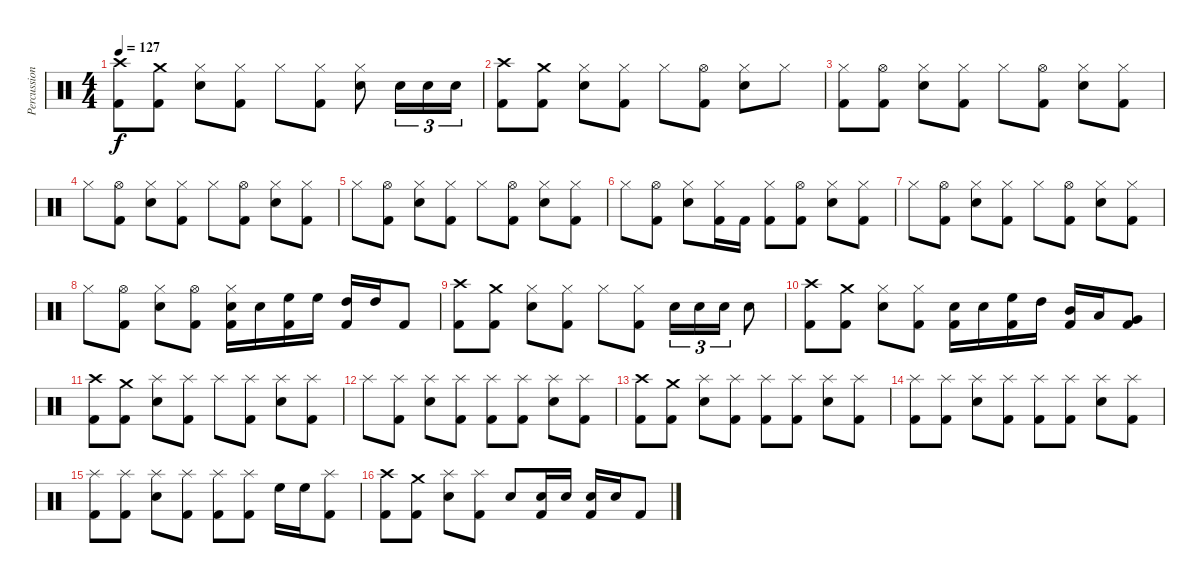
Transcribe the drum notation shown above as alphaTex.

\track ("Percussion" "Percussion") {instrument percussion}
\staff {score}
\articulation defaults
\ts (4 4)
\tempo 127
\clef neutral
\ks c
("Kick (hit) 2" "Crash high (hit)").8{dy f} ("Kick (hit) 2" "Crash medium (hit)").8 ("Snare (hit) 2" "Hi-Hat (closed)").8 ("Kick (hit) 2" "Hi-Hat (closed)").8 "Hi-Hat (closed)".8 ("Kick (hit) 2" "Hi-Hat (closed)").8 ("Snare (hit) 2" "Hi-Hat (closed)").8 "Snare (hit) 2".16{tu (3 2)} "Snare (hit) 2".16{tu (3 2)} "Snare (hit) 2".16{tu (3 2)} |
("Kick (hit) 2" "Crash high (hit)").8 ("Kick (hit) 2" "Crash medium (hit)").8 ("Snare (hit) 2" "Hi-Hat (closed)").8 ("Kick (hit) 2" "Hi-Hat (closed)").8 "Hi-Hat (closed)".8 ("Kick (hit) 2" "Hi-Hat (open)").8 ("Snare (hit) 2" "Hi-Hat (closed)").8 "Hi-Hat (closed)".8 |
("Kick (hit) 2" "Hi-Hat (closed)").8 ("Kick (hit) 2" "Hi-Hat (open)").8 ("Snare (hit) 2" "Hi-Hat (closed)").8 ("Kick (hit) 2" "Hi-Hat (closed)").8 "Hi-Hat (closed)".8 ("Kick (hit) 2" "Hi-Hat (open)").8 ("Snare (hit) 2" "Hi-Hat (closed)").8 ("Kick (hit) 2" "Hi-Hat (closed)").8 |
"Hi-Hat (closed)".8 ("Kick (hit) 2" "Hi-Hat (open)").8 ("Snare (hit) 2" "Hi-Hat (closed)").8 ("Kick (hit) 2" "Hi-Hat (closed)").8 "Hi-Hat (closed)".8 ("Kick (hit) 2" "Hi-Hat (open)").8 ("Snare (hit) 2" "Hi-Hat (closed)").8 ("Kick (hit) 2" "Hi-Hat (closed)").8 |
"Hi-Hat (closed)".8 ("Kick (hit) 2" "Hi-Hat (open)").8 ("Snare (hit) 2" "Hi-Hat (closed)").8 ("Kick (hit) 2" "Hi-Hat (closed)").8 "Hi-Hat (closed)".8 ("Kick (hit) 2" "Hi-Hat (open)").8 ("Snare (hit) 2" "Hi-Hat (closed)").8 ("Kick (hit) 2" "Hi-Hat (closed)").8 |
"Hi-Hat (closed)".8 ("Kick (hit) 2" "Hi-Hat (open)").8 ("Snare (hit) 2" "Hi-Hat (closed)").8 ("Kick (hit) 2" "Hi-Hat (closed)").16 "Kick (hit) 2".16 ("Kick (hit) 2" "Hi-Hat (closed)").8 ("Kick (hit) 2" "Hi-Hat (open)").8 ("Snare (hit) 2" "Hi-Hat (closed)").8 ("Kick (hit) 2" "Hi-Hat (closed)").8 |
"Hi-Hat (closed)".8 ("Kick (hit) 2" "Hi-Hat (open)").8 ("Snare (hit) 2" "Hi-Hat (closed)").8 ("Kick (hit) 2" "Hi-Hat (closed)").8 "Hi-Hat (closed)".8 ("Kick (hit) 2" "Hi-Hat (open)").8 ("Snare (hit) 2" "Hi-Hat (closed)").8 ("Kick (hit) 2" "Hi-Hat (closed)").8 |
"Hi-Hat (closed)".8 ("Kick (hit) 2" "Hi-Hat (open)").8 ("Snare (hit) 2" "Hi-Hat (closed)").8 ("Kick (hit) 2" "Hi-Hat (open)").8 ("Snare (hit) 2" "Kick (hit) 2" "Hi-Hat (closed)").16 "Snare (hit) 2".16 ("Kick (hit) 2" "High Floor Tom (hit)").16 "High Floor Tom (hit)".16 ("Kick (hit) 2" "High Tom (hit)").16 "High Tom (hit)".16 "Kick (hit) 2".8 |
("Kick (hit) 2" "Crash high (hit)").8 ("Kick (hit) 2" "Crash medium (hit)").8 ("Snare (hit) 2" "Hi-Hat (closed)").8 ("Kick (hit) 2" "Hi-Hat (closed)").8 "Hi-Hat (closed)".8 ("Kick (hit) 2" "Hi-Hat (closed)").8 "Snare (hit) 2".16{tu (3 2)} "Snare (hit) 2".16{tu (3 2)} "Snare (hit) 2".16{tu (3 2)} "Snare (hit) 2".8 |
("Kick (hit) 2" "Crash high (hit)").8 ("Kick (hit) 2" "Crash medium (hit)").8 ("Snare (hit) 2" "Hi-Hat (closed)").8 ("Kick (hit) 2" "Hi-Hat (closed)").8 ("Snare (hit) 2" "Kick (hit) 2").16 "Snare (hit) 2".16 ("Kick (hit) 2" "High Floor Tom (hit)").16 "High Tom (hit)".16 ("Kick (hit) 2" "Mid Tom (hit)").16 "Low Tom (hit)".16 ("Kick (hit) 2" "Very Low Tom (hit)").8 |
("Kick (hit) 2" "Crash high (hit)").8 ("Kick (hit) 2" "Crash medium (hit)").8 ("Snare (hit) 2" "Splash (hit)").8 ("Kick (hit) 2" "Splash (hit)").8 "Splash (hit)".8 ("Kick (hit) 2" "Splash (hit)").8 ("Snare (hit) 2" "Splash (hit)").8 ("Kick (hit) 2" "Splash (hit)").8 |
"Splash (hit)".8 ("Kick (hit) 2" "Splash (hit)").8 ("Snare (hit) 2" "Splash (hit)").8 ("Kick (hit) 2" "Splash (hit)").8 ("Kick (hit) 2" "Splash (hit)").8 ("Kick (hit) 2" "Splash (hit)").8 ("Snare (hit) 2" "Splash (hit)").8 ("Kick (hit) 2" "Splash (hit)").8 |
("Kick (hit) 2" "Crash high (hit)").8 ("Kick (hit) 2" "Crash medium (hit)").8 ("Snare (hit) 2" "Splash (hit)").8 ("Kick (hit) 2" "Splash (hit)").8 ("Kick (hit) 2" "Splash (hit)").8 ("Kick (hit) 2" "Splash (hit)").8 ("Snare (hit) 2" "Splash (hit)").8 ("Kick (hit) 2" "Splash (hit)").8 |
("Kick (hit) 2" "Splash (hit)").8 ("Kick (hit) 2" "Splash (hit)").8 ("Snare (hit) 2" "Splash (hit)").8 ("Kick (hit) 2" "Splash (hit)").8 ("Kick (hit) 2" "Splash (hit)").8 ("Kick (hit) 2" "Splash (hit)").8 ("Snare (hit) 2" "Splash (hit)").8 ("Kick (hit) 2" "Splash (hit)").8 |
("Kick (hit) 2" "Splash (hit)").8 ("Kick (hit) 2" "Splash (hit)").8 ("Snare (hit) 2" "Splash (hit)").8 ("Kick (hit) 2" "Splash (hit)").8 ("Kick (hit) 2" "Splash (hit)").8 ("Kick (hit) 2" "Splash (hit)").8 "High Floor Tom (hit)".16 "High Floor Tom (hit)".16 ("Kick (hit) 2" "Splash (hit)").8 |
("Kick (hit) 2" "Crash high (hit)").8 ("Kick (hit) 2" "Crash medium (hit)").8 ("Snare (hit) 2" "Splash (hit)").8 ("Kick (hit) 2" "Splash (hit)").8 "Snare (hit) 2".8 ("Snare (hit) 2" "Kick (hit) 2").16 "Snare (hit) 2".16 ("Snare (hit) 2" "Kick (hit) 2").16 "Snare (hit) 2".16 "Kick (hit) 2".8
